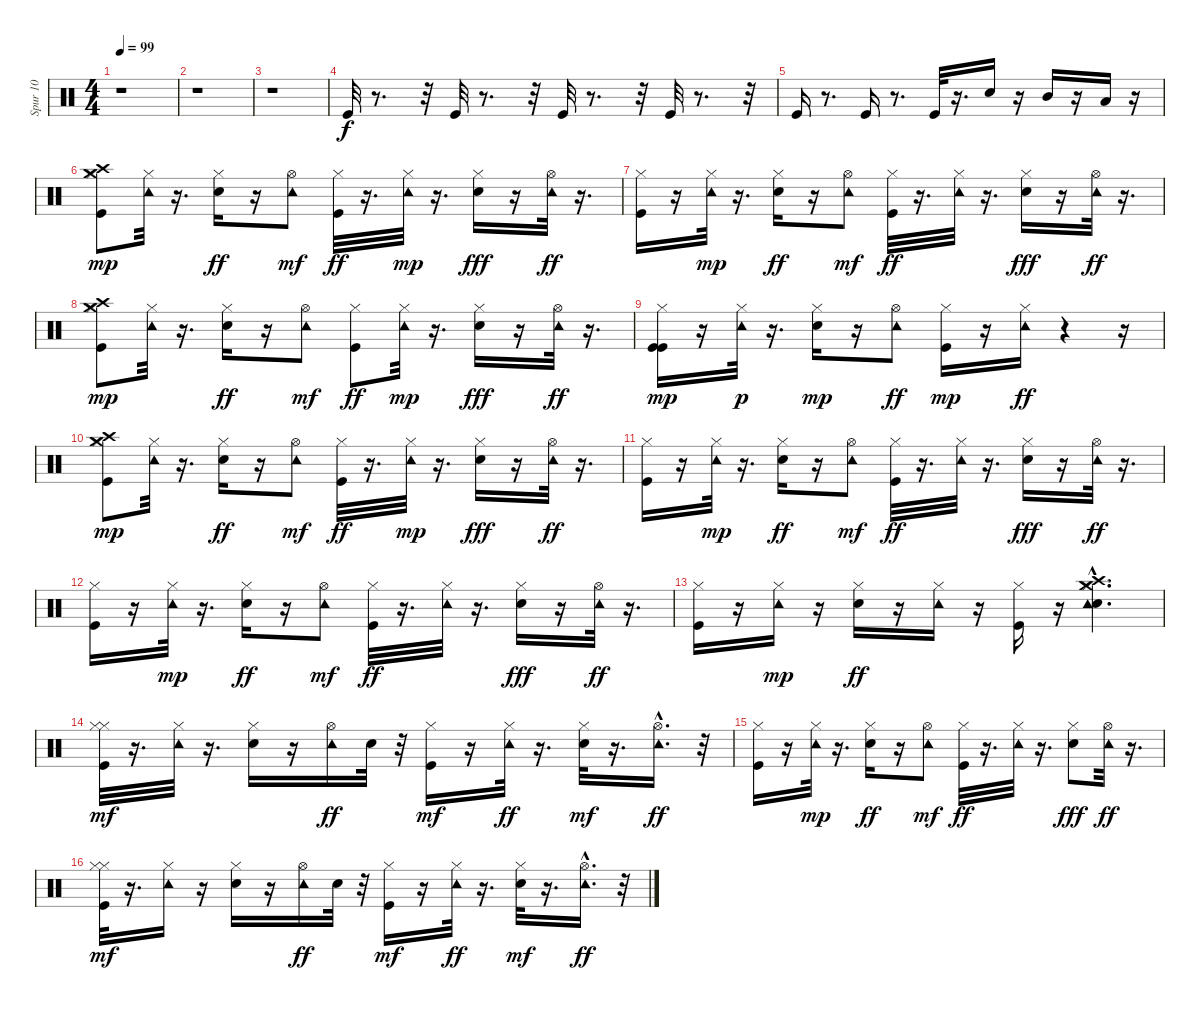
\track ("Spur 10" "Spur 10") {instrument percussion}
\staff {score}
\articulation defaults
\ts (4 4)
\tempo 99
\clef neutral
\ks c
r.1{dy f} |
r.1 |
r.1 |
"Kick (hit)".32{volume 12 balance 8} r.8{d} r.32 "Kick (hit)".32 r.8{d} r.32 "Kick (hit)".32 r.8{d} r.32 "Kick (hit)".32 r.8{d} r.32 |
"Kick (hit)".16 r.8{d} "Kick (hit)".16 r.8{d} "Kick (hit)".32 r.16{d} "Electric Snare (hit)".16 r.16 "Mid Tom (hit)".16 r.16 "Low Tom (hit)".16 r.16 |
("Hi-Hat (closed)" "Kick (hit)" "Crash high (hit)" "Crash medium (hit)").8{dy mp} ("Hi-Hat (closed)" "Tambourine (hit)").32 r.16{d} ("Hi-Hat (closed)" "Electric Snare (hit)").16{dy ff} r.16 ("Hi-Hat (open)" "Tambourine (hit)").8{dy mf} ("Hi-Hat (closed)" "Kick (hit)").32{dy ff} r.16{d} ("Hi-Hat (closed)" "Tambourine (hit)").32{dy mp} r.16{d} ("Hi-Hat (closed)" "Electric Snare (hit)").16{dy fff} r.16 ("Hi-Hat (open)" "Tambourine (hit)").32{dy ff} r.16{d} |
("Hi-Hat (closed)" "Kick (hit)").16 r.16 ("Hi-Hat (closed)" "Tambourine (hit)").32{dy mp} r.16{d} ("Hi-Hat (closed)" "Electric Snare (hit)").16{dy ff} r.16 ("Hi-Hat (open)" "Tambourine (hit)").8{dy mf} ("Hi-Hat (closed)" "Kick (hit)").32{dy ff} r.16{d} ("Hi-Hat (closed)" "Tambourine (hit)").32 r.16{d} ("Hi-Hat (closed)" "Electric Snare (hit)").16{dy fff} r.16 ("Hi-Hat (open)" "Tambourine (hit)").32{dy ff} r.16{d} |
("Hi-Hat (closed)" "Kick (hit)" "Crash high (hit)" "Crash medium (hit)").8{dy mp} ("Hi-Hat (closed)" "Tambourine (hit)").32 r.16{d} ("Hi-Hat (closed)" "Electric Snare (hit)").16{dy ff} r.16 ("Hi-Hat (open)" "Tambourine (hit)").8{dy mf} ("Hi-Hat (closed)" "Kick (hit)").8{dy ff} ("Hi-Hat (closed)" "Tambourine (hit)").32{dy mp} r.16{d} ("Hi-Hat (closed)" "Electric Snare (hit)").16{dy fff} r.16 ("Hi-Hat (open)" "Tambourine (hit)").32{dy ff} r.16{d} |
("Kick (hit)" "Kick (hit)" "Hi-Hat (closed)").16{dy mp} r.16 ("Hi-Hat (closed)" "Tambourine (hit)").32{dy p} r.16{d} ("Electric Snare (hit)" "Hi-Hat (closed)").16{dy mp} r.16 ("Hi-Hat (open)" "Tambourine (hit)").8{dy ff} ("Kick (hit)" "Hi-Hat (closed)").16{dy mp} r.16 ("Hi-Hat (closed)" "Tambourine (hit)").16{dy ff} r.4 r.16 |
("Hi-Hat (closed)" "Kick (hit)" "Crash high (hit)" "Crash medium (hit)").8{dy mp} ("Hi-Hat (closed)" "Tambourine (hit)").32 r.16{d} ("Hi-Hat (closed)" "Electric Snare (hit)").16{dy ff} r.16 ("Hi-Hat (open)" "Tambourine (hit)").8{dy mf} ("Hi-Hat (closed)" "Kick (hit)").32{dy ff} r.16{d} ("Hi-Hat (closed)" "Tambourine (hit)").32{dy mp} r.16{d} ("Hi-Hat (closed)" "Electric Snare (hit)").16{dy fff} r.16 ("Hi-Hat (open)" "Tambourine (hit)").32{dy ff} r.16{d} |
("Hi-Hat (closed)" "Kick (hit)").16 r.16 ("Hi-Hat (closed)" "Tambourine (hit)").32{dy mp} r.16{d} ("Hi-Hat (closed)" "Electric Snare (hit)").16{dy ff} r.16 ("Hi-Hat (open)" "Tambourine (hit)").8{dy mf} ("Hi-Hat (closed)" "Kick (hit)").32{dy ff} r.16{d} ("Hi-Hat (closed)" "Tambourine (hit)").32 r.16{d} ("Hi-Hat (closed)" "Electric Snare (hit)").16{dy fff} r.16 ("Hi-Hat (open)" "Tambourine (hit)").32{dy ff} r.16{d} |
("Hi-Hat (closed)" "Kick (hit)").16 r.16 ("Hi-Hat (closed)" "Tambourine (hit)").32{dy mp} r.16{d} ("Hi-Hat (closed)" "Electric Snare (hit)").16{dy ff} r.16 ("Hi-Hat (open)" "Tambourine (hit)").8{dy mf} ("Hi-Hat (closed)" "Kick (hit)").32{dy ff} r.16{d} ("Hi-Hat (closed)" "Tambourine (hit)").32 r.16{d} ("Hi-Hat (closed)" "Electric Snare (hit)").16{dy fff} r.16 ("Hi-Hat (open)" "Tambourine (hit)").32{dy ff} r.16{d} |
("Hi-Hat (closed)" "Kick (hit)").16 r.16 ("Hi-Hat (closed)" "Tambourine (hit)").16{dy mp} r.16 ("Hi-Hat (closed)" "Electric Snare (hit)").16{dy ff} r.16 ("Hi-Hat (closed)" "Tambourine (hit)").16 r.16 ("Hi-Hat (closed)" "Kick (hit)").16 r.16 ("Hi-Hat (closed)"{hac} "Electric Snare (hit)" "Crash high (hit)" "Crash medium (hit)" "Tambourine (hit)").4{d} |
("Hi-Hat (closed)" "Hi-Hat (closed)" "Kick (hit)").32{dy mf} r.16{d} ("Hi-Hat (closed)" "Tambourine (hit)").32 r.16{d} ("Electric Snare (hit)" "Hi-Hat (closed)").16 r.16 ("Hi-Hat (open)" "Tambourine (hit)").16{dy ff} "Electric Snare (hit)".32 r.32 ("Hi-Hat (closed)" "Kick (hit)").16{dy mf} r.16 ("Hi-Hat (closed)" "Tambourine (hit)").32{dy ff} r.16{d} ("Electric Snare (hit)" "Hi-Hat (closed)").32{dy mf} r.16{d} ("Hi-Hat (open)"{hac} "Tambourine (hit)").16{d dy ff} r.32 |
("Hi-Hat (closed)" "Kick (hit)").16 r.16 ("Hi-Hat (closed)" "Tambourine (hit)").32{dy mp} r.16{d} ("Hi-Hat (closed)" "Electric Snare (hit)").16{dy ff} r.16 ("Hi-Hat (open)" "Tambourine (hit)").8{dy mf} ("Hi-Hat (closed)" "Kick (hit)").32{dy ff} r.16{d} ("Hi-Hat (closed)" "Tambourine (hit)").32 r.16{d} ("Hi-Hat (closed)" "Electric Snare (hit)").8{dy fff} ("Hi-Hat (open)" "Tambourine (hit)").32{dy ff} r.16{d} |
("Hi-Hat (closed)" "Hi-Hat (closed)" "Kick (hit)").32{dy mf} r.16{d} ("Hi-Hat (closed)" "Tambourine (hit)").16 r.16 ("Electric Snare (hit)" "Hi-Hat (closed)").16 r.16 ("Hi-Hat (open)" "Tambourine (hit)").16{dy ff} "Electric Snare (hit)".32 r.32 ("Hi-Hat (closed)" "Kick (hit)").16{dy mf} r.16 ("Hi-Hat (closed)" "Tambourine (hit)").32{dy ff} r.16{d} ("Electric Snare (hit)" "Hi-Hat (closed)").32{dy mf} r.16{d} ("Hi-Hat (open)"{hac} "Tambourine (hit)").16{d dy ff} r.32
